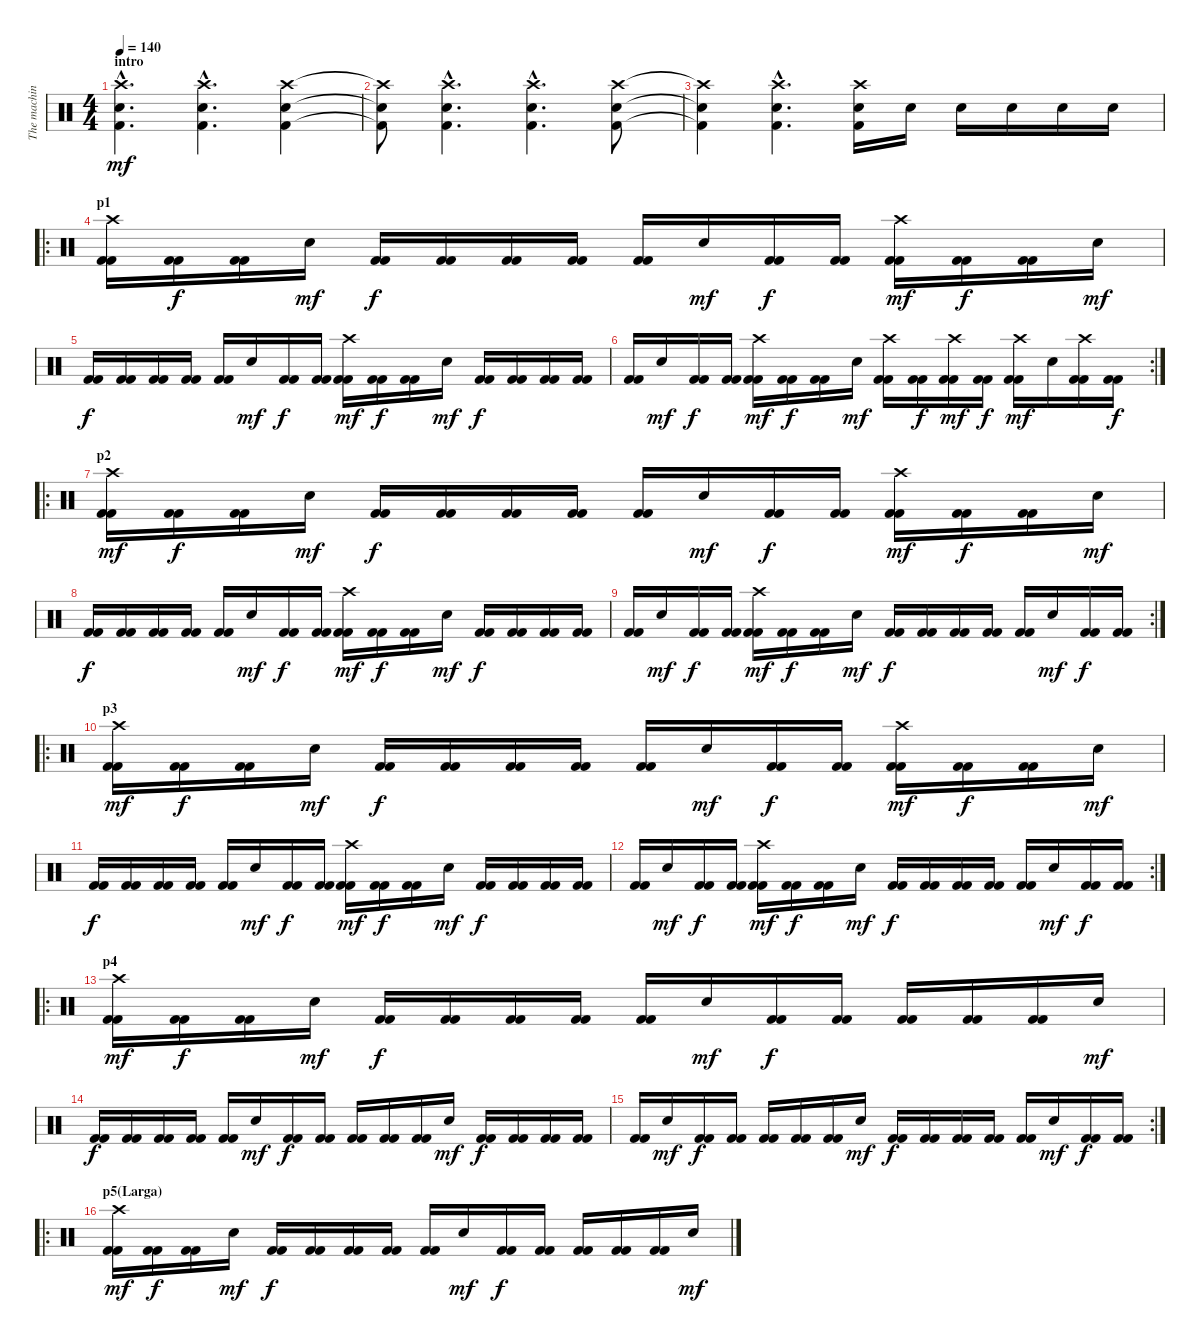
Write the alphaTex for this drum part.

\track ("The machine Reloaded" "The machin") {instrument percussion}
\staff {score}
\articulation defaults
\ts (4 4)
\section ("" "intro")
\tempo 140
\clef neutral
\ks c
("Crash high (hit)"{hac} "Snare (hit) 2"{hac} "Kick (hit) 2"{hac}).4{d dy mf} ("Crash high (hit)"{hac} "Snare (hit) 2"{hac} "Kick (hit) 2"{hac}).4{d} ("Crash high (hit)" "Snare (hit) 2" "Kick (hit) 2").4 |
("Crash high (hit)"{t} "Snare (hit) 2"{t} "Kick (hit) 2"{t}).8 ("Crash high (hit)"{hac} "Snare (hit) 2"{hac} "Kick (hit) 2"{hac}).4{d} ("Crash high (hit)"{hac} "Snare (hit) 2"{hac} "Kick (hit) 2"{hac}).4{d} ("Crash high (hit)" "Snare (hit) 2" "Kick (hit) 2").8 |
("Crash high (hit)"{t} "Snare (hit) 2"{t} "Kick (hit) 2"{t}).4 ("Crash high (hit)"{hac} "Snare (hit) 2"{hac} "Kick (hit) 2"{hac}).4{d} ("Crash high (hit)" "Snare (hit) 2" "Kick (hit) 2").16 "Snare (hit) 2".16 "Snare (hit) 2".16 "Snare (hit) 2".16 "Snare (hit) 2".16 "Snare (hit) 2".16 |
\ro
\section ("" "p1")
("Crash high (hit)" "Kick (hit) 2" "Kick (hit) 2").16 ("Kick (hit) 2" "Kick (hit) 2").16{dy f} ("Kick (hit) 2" "Kick (hit) 2").16 "Snare (hit) 2".16{dy mf} ("Kick (hit) 2" "Kick (hit) 2").16{dy f} ("Kick (hit) 2" "Kick (hit) 2").16 ("Kick (hit) 2" "Kick (hit) 2").16 ("Kick (hit) 2" "Kick (hit) 2").16 ("Kick (hit) 2" "Kick (hit) 2").16 "Snare (hit) 2".16{dy mf} ("Kick (hit) 2" "Kick (hit) 2").16{dy f} ("Kick (hit) 2" "Kick (hit) 2").16 ("Crash high (hit)" "Kick (hit) 2" "Kick (hit) 2").16{dy mf} ("Kick (hit) 2" "Kick (hit) 2").16{dy f} ("Kick (hit) 2" "Kick (hit) 2").16 "Snare (hit) 2".16{dy mf} |
("Kick (hit) 2" "Kick (hit) 2").16{dy f} ("Kick (hit) 2" "Kick (hit) 2").16 ("Kick (hit) 2" "Kick (hit) 2").16 ("Kick (hit) 2" "Kick (hit) 2").16 ("Kick (hit) 2" "Kick (hit) 2").16 "Snare (hit) 2".16{dy mf} ("Kick (hit) 2" "Kick (hit) 2").16{dy f} ("Kick (hit) 2" "Kick (hit) 2").16 ("Crash high (hit)" "Kick (hit) 2" "Kick (hit) 2").16{dy mf} ("Kick (hit) 2" "Kick (hit) 2").16{dy f} ("Kick (hit) 2" "Kick (hit) 2").16 "Snare (hit) 2".16{dy mf} ("Kick (hit) 2" "Kick (hit) 2").16{dy f} ("Kick (hit) 2" "Kick (hit) 2").16 ("Kick (hit) 2" "Kick (hit) 2").16 ("Kick (hit) 2" "Kick (hit) 2").16 |
\rc 2
("Kick (hit) 2" "Kick (hit) 2").16 "Snare (hit) 2".16{dy mf} ("Kick (hit) 2" "Kick (hit) 2").16{dy f} ("Kick (hit) 2" "Kick (hit) 2").16 ("Crash high (hit)" "Kick (hit) 2" "Kick (hit) 2").16{dy mf} ("Kick (hit) 2" "Kick (hit) 2").16{dy f} ("Kick (hit) 2" "Kick (hit) 2").16 "Snare (hit) 2".16{dy mf} ("Crash high (hit)" "Kick (hit) 2" "Kick (hit) 2").16 ("Kick (hit) 2" "Kick (hit) 2").16{dy f} ("Crash high (hit)" "Kick (hit) 2" "Kick (hit) 2").16{dy mf} ("Kick (hit) 2" "Kick (hit) 2").16{dy f} ("Crash high (hit)" "Kick (hit) 2" "Kick (hit) 2").16{dy mf} "Snare (hit) 2".16 ("Crash high (hit)" "Kick (hit) 2" "Kick (hit) 2").16 ("Kick (hit) 2" "Kick (hit) 2").16{dy f} |
\ro
\section ("" "p2")
("Crash high (hit)" "Kick (hit) 2" "Kick (hit) 2").16{dy mf} ("Kick (hit) 2" "Kick (hit) 2").16{dy f} ("Kick (hit) 2" "Kick (hit) 2").16 "Snare (hit) 2".16{dy mf} ("Kick (hit) 2" "Kick (hit) 2").16{dy f} ("Kick (hit) 2" "Kick (hit) 2").16 ("Kick (hit) 2" "Kick (hit) 2").16 ("Kick (hit) 2" "Kick (hit) 2").16 ("Kick (hit) 2" "Kick (hit) 2").16 "Snare (hit) 2".16{dy mf} ("Kick (hit) 2" "Kick (hit) 2").16{dy f} ("Kick (hit) 2" "Kick (hit) 2").16 ("Crash high (hit)" "Kick (hit) 2" "Kick (hit) 2").16{dy mf} ("Kick (hit) 2" "Kick (hit) 2").16{dy f} ("Kick (hit) 2" "Kick (hit) 2").16 "Snare (hit) 2".16{dy mf} |
("Kick (hit) 2" "Kick (hit) 2").16{dy f} ("Kick (hit) 2" "Kick (hit) 2").16 ("Kick (hit) 2" "Kick (hit) 2").16 ("Kick (hit) 2" "Kick (hit) 2").16 ("Kick (hit) 2" "Kick (hit) 2").16 "Snare (hit) 2".16{dy mf} ("Kick (hit) 2" "Kick (hit) 2").16{dy f} ("Kick (hit) 2" "Kick (hit) 2").16 ("Crash high (hit)" "Kick (hit) 2" "Kick (hit) 2").16{dy mf} ("Kick (hit) 2" "Kick (hit) 2").16{dy f} ("Kick (hit) 2" "Kick (hit) 2").16 "Snare (hit) 2".16{dy mf} ("Kick (hit) 2" "Kick (hit) 2").16{dy f} ("Kick (hit) 2" "Kick (hit) 2").16 ("Kick (hit) 2" "Kick (hit) 2").16 ("Kick (hit) 2" "Kick (hit) 2").16 |
\rc 2
("Kick (hit) 2" "Kick (hit) 2").16 "Snare (hit) 2".16{dy mf} ("Kick (hit) 2" "Kick (hit) 2").16{dy f} ("Kick (hit) 2" "Kick (hit) 2").16 ("Crash high (hit)" "Kick (hit) 2" "Kick (hit) 2").16{dy mf} ("Kick (hit) 2" "Kick (hit) 2").16{dy f} ("Kick (hit) 2" "Kick (hit) 2").16 "Snare (hit) 2".16{dy mf} ("Kick (hit) 2" "Kick (hit) 2").16{dy f} ("Kick (hit) 2" "Kick (hit) 2").16 ("Kick (hit) 2" "Kick (hit) 2").16 ("Kick (hit) 2" "Kick (hit) 2").16 ("Kick (hit) 2" "Kick (hit) 2").16 "Snare (hit) 2".16{dy mf} ("Kick (hit) 2" "Kick (hit) 2").16{dy f} ("Kick (hit) 2" "Kick (hit) 2").16 |
\ro
\section ("" "p3")
("Crash high (hit)" "Kick (hit) 2" "Kick (hit) 2").16{dy mf} ("Kick (hit) 2" "Kick (hit) 2").16{dy f} ("Kick (hit) 2" "Kick (hit) 2").16 "Snare (hit) 2".16{dy mf} ("Kick (hit) 2" "Kick (hit) 2").16{dy f} ("Kick (hit) 2" "Kick (hit) 2").16 ("Kick (hit) 2" "Kick (hit) 2").16 ("Kick (hit) 2" "Kick (hit) 2").16 ("Kick (hit) 2" "Kick (hit) 2").16 "Snare (hit) 2".16{dy mf} ("Kick (hit) 2" "Kick (hit) 2").16{dy f} ("Kick (hit) 2" "Kick (hit) 2").16 ("Crash high (hit)" "Kick (hit) 2" "Kick (hit) 2").16{dy mf} ("Kick (hit) 2" "Kick (hit) 2").16{dy f} ("Kick (hit) 2" "Kick (hit) 2").16 "Snare (hit) 2".16{dy mf} |
("Kick (hit) 2" "Kick (hit) 2").16{dy f} ("Kick (hit) 2" "Kick (hit) 2").16 ("Kick (hit) 2" "Kick (hit) 2").16 ("Kick (hit) 2" "Kick (hit) 2").16 ("Kick (hit) 2" "Kick (hit) 2").16 "Snare (hit) 2".16{dy mf} ("Kick (hit) 2" "Kick (hit) 2").16{dy f} ("Kick (hit) 2" "Kick (hit) 2").16 ("Crash high (hit)" "Kick (hit) 2" "Kick (hit) 2").16{dy mf} ("Kick (hit) 2" "Kick (hit) 2").16{dy f} ("Kick (hit) 2" "Kick (hit) 2").16 "Snare (hit) 2".16{dy mf} ("Kick (hit) 2" "Kick (hit) 2").16{dy f} ("Kick (hit) 2" "Kick (hit) 2").16 ("Kick (hit) 2" "Kick (hit) 2").16 ("Kick (hit) 2" "Kick (hit) 2").16 |
\rc 2
("Kick (hit) 2" "Kick (hit) 2").16 "Snare (hit) 2".16{dy mf} ("Kick (hit) 2" "Kick (hit) 2").16{dy f} ("Kick (hit) 2" "Kick (hit) 2").16 ("Crash high (hit)" "Kick (hit) 2" "Kick (hit) 2").16{dy mf} ("Kick (hit) 2" "Kick (hit) 2").16{dy f} ("Kick (hit) 2" "Kick (hit) 2").16 "Snare (hit) 2".16{dy mf} ("Kick (hit) 2" "Kick (hit) 2").16{dy f} ("Kick (hit) 2" "Kick (hit) 2").16 ("Kick (hit) 2" "Kick (hit) 2").16 ("Kick (hit) 2" "Kick (hit) 2").16 ("Kick (hit) 2" "Kick (hit) 2").16 "Snare (hit) 2".16{dy mf} ("Kick (hit) 2" "Kick (hit) 2").16{dy f} ("Kick (hit) 2" "Kick (hit) 2").16 |
\ro
\section ("" "p4")
("Crash high (hit)" "Kick (hit) 2" "Kick (hit) 2").16{dy mf} ("Kick (hit) 2" "Kick (hit) 2").16{dy f} ("Kick (hit) 2" "Kick (hit) 2").16 "Snare (hit) 2".16{dy mf} ("Kick (hit) 2" "Kick (hit) 2").16{dy f} ("Kick (hit) 2" "Kick (hit) 2").16 ("Kick (hit) 2" "Kick (hit) 2").16 ("Kick (hit) 2" "Kick (hit) 2").16 ("Kick (hit) 2" "Kick (hit) 2").16 "Snare (hit) 2".16{dy mf} ("Kick (hit) 2" "Kick (hit) 2").16{dy f} ("Kick (hit) 2" "Kick (hit) 2").16 ("Kick (hit) 2" "Kick (hit) 2").16 ("Kick (hit) 2" "Kick (hit) 2").16 ("Kick (hit) 2" "Kick (hit) 2").16 "Snare (hit) 2".16{dy mf} |
("Kick (hit) 2" "Kick (hit) 2").16{dy f} ("Kick (hit) 2" "Kick (hit) 2").16 ("Kick (hit) 2" "Kick (hit) 2").16 ("Kick (hit) 2" "Kick (hit) 2").16 ("Kick (hit) 2" "Kick (hit) 2").16 "Snare (hit) 2".16{dy mf} ("Kick (hit) 2" "Kick (hit) 2").16{dy f} ("Kick (hit) 2" "Kick (hit) 2").16 ("Kick (hit) 2" "Kick (hit) 2").16 ("Kick (hit) 2" "Kick (hit) 2").16 ("Kick (hit) 2" "Kick (hit) 2").16 "Snare (hit) 2".16{dy mf} ("Kick (hit) 2" "Kick (hit) 2").16{dy f} ("Kick (hit) 2" "Kick (hit) 2").16 ("Kick (hit) 2" "Kick (hit) 2").16 ("Kick (hit) 2" "Kick (hit) 2").16 |
\rc 2
("Kick (hit) 2" "Kick (hit) 2").16 "Snare (hit) 2".16{dy mf} ("Kick (hit) 2" "Kick (hit) 2").16{dy f} ("Kick (hit) 2" "Kick (hit) 2").16 ("Kick (hit) 2" "Kick (hit) 2").16 ("Kick (hit) 2" "Kick (hit) 2").16 ("Kick (hit) 2" "Kick (hit) 2").16 "Snare (hit) 2".16{dy mf} ("Kick (hit) 2" "Kick (hit) 2").16{dy f} ("Kick (hit) 2" "Kick (hit) 2").16 ("Kick (hit) 2" "Kick (hit) 2").16 ("Kick (hit) 2" "Kick (hit) 2").16 ("Kick (hit) 2" "Kick (hit) 2").16 "Snare (hit) 2".16{dy mf} ("Kick (hit) 2" "Kick (hit) 2").16{dy f} ("Kick (hit) 2" "Kick (hit) 2").16 |
\ro
\section ("" "p5(Larga)")
("Crash high (hit)" "Kick (hit) 2" "Kick (hit) 2").16{dy mf} ("Kick (hit) 2" "Kick (hit) 2").16{dy f} ("Kick (hit) 2" "Kick (hit) 2").16 "Snare (hit) 2".16{dy mf} ("Kick (hit) 2" "Kick (hit) 2").16{dy f} ("Kick (hit) 2" "Kick (hit) 2").16 ("Kick (hit) 2" "Kick (hit) 2").16 ("Kick (hit) 2" "Kick (hit) 2").16 ("Kick (hit) 2" "Kick (hit) 2").16 "Snare (hit) 2".16{dy mf} ("Kick (hit) 2" "Kick (hit) 2").16{dy f} ("Kick (hit) 2" "Kick (hit) 2").16 ("Kick (hit) 2" "Kick (hit) 2").16 ("Kick (hit) 2" "Kick (hit) 2").16 ("Kick (hit) 2" "Kick (hit) 2").16 "Snare (hit) 2".16{dy mf}
